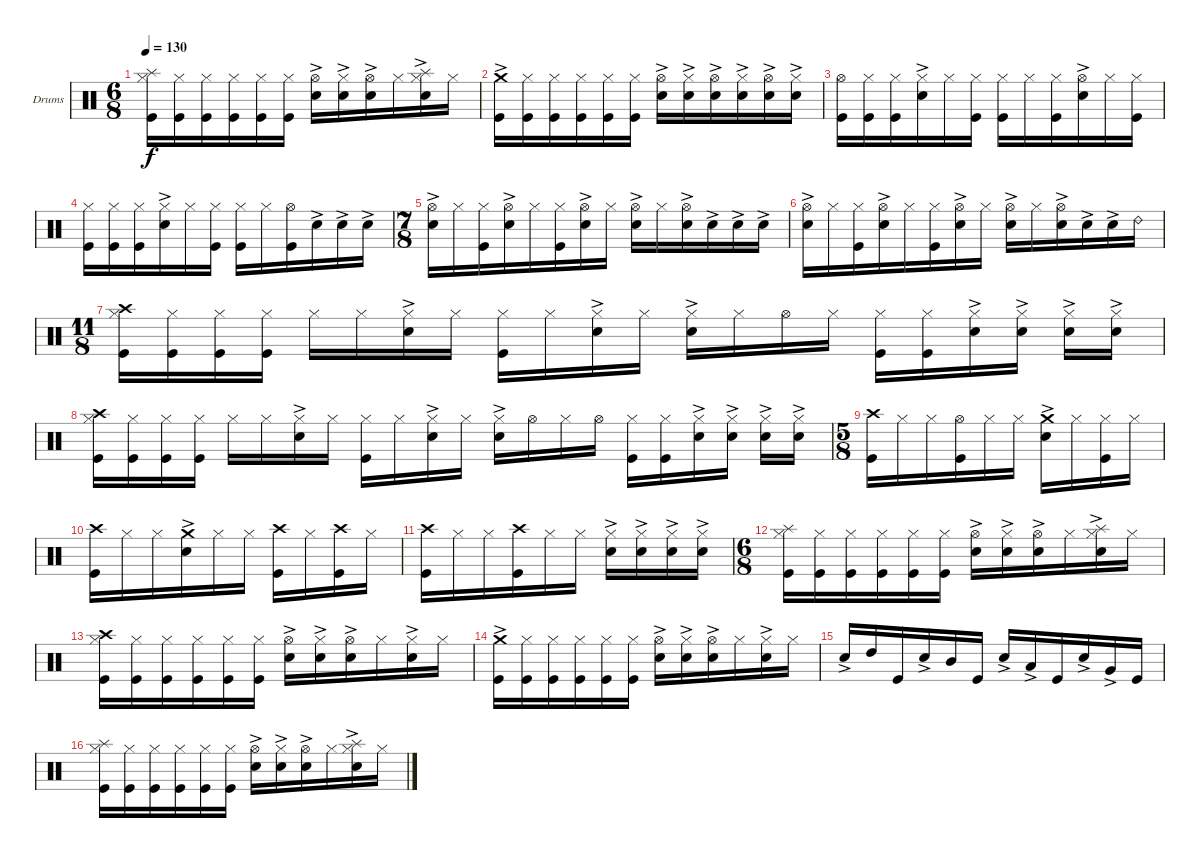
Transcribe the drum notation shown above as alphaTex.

\defaultSystemsLayout 4
\bracketExtendMode groupsimilarinstruments
\firstSystemTrackNameOrientation horizontal
\otherSystemsTrackNameOrientation horizontal
\track ("Drumkit" "Drums") {instrument percussion}
\staff {score}
\articulation defaults
\ts (6 8)
\tempo 130
\clef neutral
\ks c
("Hi-Hat (closed)" "Kick (hit)" "Splash (hit)").16{dy f} ("Kick (hit)" "Hi-Hat (closed)").16 ("Kick (hit)" "Hi-Hat (closed)").16 ("Kick (hit)" "Hi-Hat (closed)").16 ("Kick (hit)" "Hi-Hat (closed)").16 ("Kick (hit)" "Hi-Hat (closed)").16 ("Snare (hit) 2"{ac} "Hi-Hat (open)").16 ("Snare (hit) 2"{ac} "Hi-Hat (closed)").16 ("Snare (hit) 2"{ac} "Hi-Hat (open)").16 "Hi-Hat (closed)".16 ("Snare (hit) 2"{ac} "Hi-Hat (closed)" "Splash (hit)").16 "Hi-Hat (closed)".16 |
("Kick (hit)" "Crash medium (hit)"{ac}).16 ("Kick (hit)" "Hi-Hat (closed)").16 ("Kick (hit)" "Hi-Hat (closed)").16 ("Kick (hit)" "Hi-Hat (closed)").16 ("Kick (hit)" "Hi-Hat (closed)").16 ("Kick (hit)" "Hi-Hat (closed)").16 ("Hi-Hat (open)" "Snare (hit) 2"{ac}).16 ("Hi-Hat (closed)" "Snare (hit) 2"{ac}).16 ("Hi-Hat (open)" "Snare (hit) 2"{ac}).16 ("Hi-Hat (closed)" "Snare (hit) 2"{ac}).16 ("Hi-Hat (open)" "Snare (hit) 2"{ac}).16 ("Hi-Hat (closed)" "Snare (hit) 2"{ac}).16 |
("Hi-Hat (open)" "Kick (hit)").16 ("Kick (hit)" "Hi-Hat (closed)").16 ("Kick (hit)" "Hi-Hat (closed)").16 ("Snare (hit) 2"{ac} "Hi-Hat (closed)").16 "Hi-Hat (closed)".16 ("Kick (hit)" "Hi-Hat (closed)").16 ("Kick (hit)" "Hi-Hat (closed)").16 "Hi-Hat (closed)".16 ("Kick (hit)" "Hi-Hat (closed)").16 ("Snare (hit) 2"{ac} "Hi-Hat (open)").16 "Hi-Hat (closed)".16 ("Kick (hit)" "Hi-Hat (closed)").16 |
("Hi-Hat (closed)" "Kick (hit)").16 ("Kick (hit)" "Hi-Hat (closed)").16 ("Kick (hit)" "Hi-Hat (closed)").16 ("Snare (hit) 2"{ac} "Hi-Hat (closed)").16 "Hi-Hat (closed)".16 ("Kick (hit)" "Hi-Hat (closed)").16 ("Kick (hit)" "Hi-Hat (closed)").16 "Hi-Hat (closed)".16 ("Kick (hit)" "Hi-Hat (open)").16 "Snare (hit) 2"{ac}.16 "Snare (hit) 2"{ac}.16 "Snare (hit) 2"{ac}.16 |
\ts (7 8)
("Snare (hit) 2"{ac} "Hi-Hat (open)").16 "Hi-Hat (closed)".16 ("Kick (hit)" "Hi-Hat (closed)").16 ("Snare (hit) 2"{ac} "Hi-Hat (open)").16 "Hi-Hat (closed)".16 ("Kick (hit)" "Hi-Hat (closed)").16 ("Snare (hit) 2"{ac} "Hi-Hat (open)").16 "Hi-Hat (closed)".16 ("Snare (hit) 2"{ac} "Hi-Hat (open)").16 "Hi-Hat (closed)".16 ("Snare (hit) 2"{ac} "Hi-Hat (open)").16 "Snare (hit) 2"{ac}.16 "Snare (hit) 2"{ac}.16 "Snare (hit) 2"{ac}.16 |
("Snare (hit) 2"{ac} "Hi-Hat (open)").16 "Hi-Hat (closed)".16 ("Kick (hit)" "Hi-Hat (closed)").16 ("Snare (hit) 2"{ac} "Hi-Hat (open)").16 "Hi-Hat (closed)".16 ("Kick (hit)" "Hi-Hat (closed)").16 ("Snare (hit) 2"{ac} "Hi-Hat (open)").16 "Hi-Hat (closed)".16 ("Snare (hit) 2"{ac} "Hi-Hat (open)").16 "Hi-Hat (closed)".16 ("Snare (hit) 2"{ac} "Hi-Hat (open)").16 "Snare (hit) 2"{ac}.16 "Snare (hit) 2"{ac}.16 "Ride (bell) 2".16 |
\ts (11 8)
("Kick (hit)" "Hi-Hat (closed)" "Crash high (hit)").16 ("Kick (hit)" "Hi-Hat (closed)").16 ("Kick (hit)" "Hi-Hat (closed)").16 ("Kick (hit)" "Hi-Hat (closed)").16 "Hi-Hat (closed)".16 "Hi-Hat (closed)".16 ("Snare (hit) 2"{ac} "Hi-Hat (closed)").16 "Hi-Hat (closed)".16 ("Kick (hit)" "Hi-Hat (closed)").16 "Hi-Hat (closed)".16 ("Snare (hit) 2"{ac} "Hi-Hat (closed)").16 "Hi-Hat (closed)".16 ("Snare (hit) 2"{ac} "Hi-Hat (closed)").16 "Hi-Hat (closed)".16 "Hi-Hat (open)".16 "Hi-Hat (closed)".16 ("Kick (hit)" "Hi-Hat (closed)").16 ("Kick (hit)" "Hi-Hat (closed)").16 ("Snare (hit) 2"{ac} "Hi-Hat (closed)").16 ("Snare (hit) 2"{ac} "Hi-Hat (closed)").16 ("Snare (hit) 2"{ac} "Hi-Hat (closed)").16 ("Snare (hit) 2"{ac} "Hi-Hat (closed)").16 |
("Kick (hit)" "Hi-Hat (closed)" "Crash high (hit)").16 ("Kick (hit)" "Hi-Hat (closed)").16 ("Kick (hit)" "Hi-Hat (closed)").16 ("Kick (hit)" "Hi-Hat (closed)").16 "Hi-Hat (closed)".16 "Hi-Hat (closed)".16 ("Snare (hit) 2"{ac} "Hi-Hat (closed)").16 "Hi-Hat (closed)".16 ("Kick (hit)" "Hi-Hat (closed)").16 "Hi-Hat (closed)".16 ("Snare (hit) 2"{ac} "Hi-Hat (closed)").16 "Hi-Hat (closed)".16 ("Snare (hit) 2"{ac} "Hi-Hat (closed)").16 "Hi-Hat (open)".16 "Hi-Hat (closed)".16 "Hi-Hat (open)".16 ("Kick (hit)" "Hi-Hat (closed)").16 ("Kick (hit)" "Hi-Hat (closed)").16 ("Snare (hit) 2"{ac} "Hi-Hat (closed)").16 ("Snare (hit) 2"{ac} "Hi-Hat (closed)").16 ("Snare (hit) 2"{ac} "Hi-Hat (closed)").16 ("Snare (hit) 2"{ac} "Hi-Hat (closed)").16 |
\ts (5 8)
("Kick (hit)" "Crash high (hit)").16 "Hi-Hat (closed)".16 "Hi-Hat (closed)".16 ("Kick (hit)" "Hi-Hat (open)").16 "Hi-Hat (closed)".16 "Hi-Hat (closed)".16 ("Snare (hit) 2"{ac} "Crash medium (hit)"{ac}).16 "Hi-Hat (closed)".16 ("Kick (hit)" "Hi-Hat (closed)").16 "Hi-Hat (closed)".16 |
("Kick (hit)" "Crash high (hit)").16 "Hi-Hat (closed)".16 "Hi-Hat (closed)".16 ("Snare (hit) 2"{ac} "Crash medium (hit)"{ac}).16 "Hi-Hat (closed)".16 "Hi-Hat (closed)".16 ("Kick (hit)" "Crash high (hit)").16 "Hi-Hat (closed)".16 ("Kick (hit)" "Crash high (hit)").16 "Hi-Hat (closed)".16 |
("Kick (hit)" "Crash high (hit)").16 "Hi-Hat (closed)".16 "Hi-Hat (closed)".16 ("Kick (hit)" "Crash high (hit)").16 "Hi-Hat (closed)".16 "Hi-Hat (closed)".16 ("Hi-Hat (closed)" "Snare (hit) 2"{ac}).16 ("Hi-Hat (closed)" "Snare (hit) 2"{ac}).16 ("Hi-Hat (closed)" "Snare (hit) 2"{ac}).16 ("Hi-Hat (closed)" "Snare (hit) 2"{ac}).16 |
\ts (6 8)
("Hi-Hat (closed)" "Kick (hit)" "Splash (hit)").16 ("Kick (hit)" "Hi-Hat (closed)").16 ("Kick (hit)" "Hi-Hat (closed)").16 ("Kick (hit)" "Hi-Hat (closed)").16 ("Kick (hit)" "Hi-Hat (closed)").16 ("Kick (hit)" "Hi-Hat (closed)").16 ("Snare (hit) 2"{ac} "Hi-Hat (open)").16 ("Snare (hit) 2"{ac} "Hi-Hat (closed)").16 ("Snare (hit) 2"{ac} "Hi-Hat (open)").16 "Hi-Hat (closed)".16 ("Snare (hit) 2"{ac} "Hi-Hat (closed)" "Splash (hit)").16 "Hi-Hat (closed)".16 |
("Hi-Hat (closed)" "Kick (hit)" "Crash high (hit)").16 ("Kick (hit)" "Hi-Hat (closed)").16 ("Kick (hit)" "Hi-Hat (closed)").16 ("Kick (hit)" "Hi-Hat (closed)").16 ("Kick (hit)" "Hi-Hat (closed)").16 ("Kick (hit)" "Hi-Hat (closed)").16 ("Snare (hit) 2"{ac} "Hi-Hat (open)").16 ("Snare (hit) 2"{ac} "Hi-Hat (closed)").16 ("Snare (hit) 2"{ac} "Hi-Hat (open)").16 "Hi-Hat (closed)".16 ("Snare (hit) 2"{ac} "Hi-Hat (closed)").16 "Hi-Hat (closed)".16 |
("Kick (hit)" "Crash medium (hit)"{ac}).16 ("Kick (hit)" "Hi-Hat (closed)").16 ("Kick (hit)" "Hi-Hat (closed)").16 ("Kick (hit)" "Hi-Hat (closed)").16 ("Kick (hit)" "Hi-Hat (closed)").16 ("Kick (hit)" "Hi-Hat (closed)").16 ("Snare (hit) 2"{ac} "Hi-Hat (open)").16 ("Snare (hit) 2"{ac} "Hi-Hat (closed)").16 ("Snare (hit) 2"{ac} "Hi-Hat (open)").16 "Hi-Hat (closed)".16 ("Snare (hit) 2"{ac} "Hi-Hat (closed)").16 "Hi-Hat (closed)".16 |
"Snare (hit) 2"{ac}.16 "High Tom (hit)".16 "Kick (hit)".16 "Snare (hit) 2"{ac}.16 "Mid Tom (hit)".16 "Kick (hit)".16 "Snare (hit) 2"{ac}.16 "Low Tom (hit)"{ac}.16 "Kick (hit)".16 "Snare (hit) 2"{ac}.16 "Very Low Tom (hit)"{ac}.16 "Kick (hit)".16 |
("Hi-Hat (closed)" "Kick (hit)" "Splash (hit)").16 ("Kick (hit)" "Hi-Hat (closed)").16 ("Kick (hit)" "Hi-Hat (closed)").16 ("Kick (hit)" "Hi-Hat (closed)").16 ("Kick (hit)" "Hi-Hat (closed)").16 ("Kick (hit)" "Hi-Hat (closed)").16 ("Snare (hit) 2"{ac} "Hi-Hat (open)").16 ("Snare (hit) 2"{ac} "Hi-Hat (closed)").16 ("Snare (hit) 2"{ac} "Hi-Hat (open)").16 "Hi-Hat (closed)".16 ("Snare (hit) 2"{ac} "Hi-Hat (closed)" "Splash (hit)").16 "Hi-Hat (closed)".16
